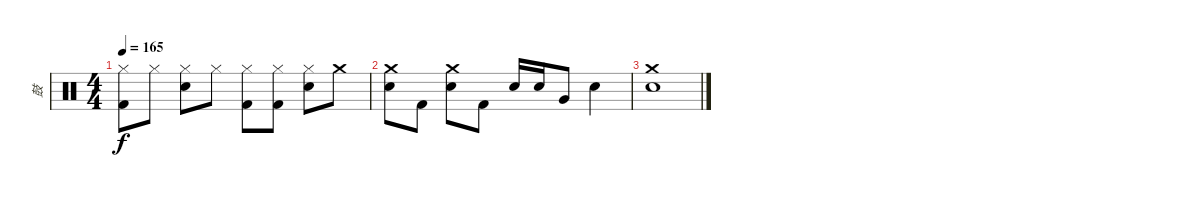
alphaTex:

\track ("鼓" "鼓") {instrument percussion}
\staff {score}
\articulation defaults
\ts (4 4)
\tempo 165
\clef neutral
\ks c
("Hi-Hat (closed)" "Kick (hit) 2").8{dy f} "Hi-Hat (closed)".8 ("Hi-Hat (closed)" "Snare (hit) 2").8 "Hi-Hat (closed)".8 ("Hi-Hat (closed)" "Kick (hit) 2").8 ("Hi-Hat (closed)" "Kick (hit) 2").8 ("Hi-Hat (closed)" "Snare (hit) 2").8 "Crash medium (hit)".8 |
("Crash medium (hit)" "Snare (hit) 2").8 "Kick (hit) 2".8 ("Crash medium (hit)" "Snare (hit) 2").8 "Kick (hit) 2".8 "Snare (hit) 2".16 "Snare (hit) 2".16 "Very Low Tom (hit)".8 "Snare (hit) 2".4 |
("Crash medium (hit)" "Snare (hit) 2").1
